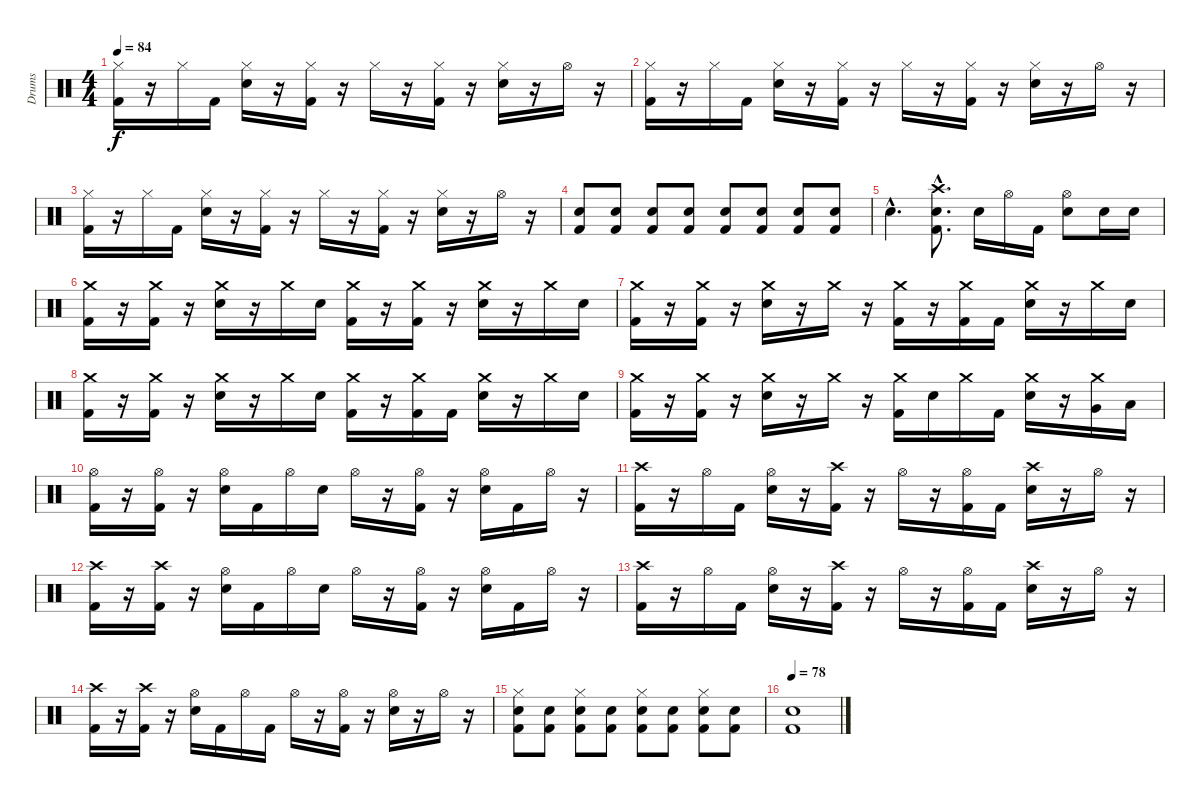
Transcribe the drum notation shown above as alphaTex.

\track ("Drums" "Drums") {instrument percussion}
\staff {score}
\articulation defaults
\ts (4 4)
\tempo 84
\clef neutral
\ks c
("Hi-Hat (closed)" "Kick (hit) 2").16{dy f} r.16 "Hi-Hat (closed)".16 "Kick (hit) 2".16 ("Hi-Hat (closed)" "Snare (hit) 2").16 r.16 ("Hi-Hat (closed)" "Kick (hit) 2").16 r.16 "Hi-Hat (closed)".16 r.16 ("Hi-Hat (closed)" "Kick (hit) 2").16 r.16 ("Hi-Hat (closed)" "Snare (hit) 2").16 r.16 "Hi-Hat (open)".16 r.16 |
("Hi-Hat (closed)" "Kick (hit) 2").16 r.16 "Hi-Hat (closed)".16 "Kick (hit) 2".16 ("Hi-Hat (closed)" "Snare (hit) 2").16 r.16 ("Hi-Hat (closed)" "Kick (hit) 2").16 r.16 "Hi-Hat (closed)".16 r.16 ("Hi-Hat (closed)" "Kick (hit) 2").16 r.16 ("Hi-Hat (closed)" "Snare (hit) 2").16 r.16 "Hi-Hat (open)".16 r.16 |
("Hi-Hat (closed)" "Kick (hit) 2").16 r.16 "Hi-Hat (closed)".16 "Kick (hit) 2".16 ("Hi-Hat (closed)" "Snare (hit) 2").16 r.16 ("Hi-Hat (closed)" "Kick (hit) 2").16 r.16 "Hi-Hat (closed)".16 r.16 ("Hi-Hat (closed)" "Kick (hit) 2").16 r.16 ("Hi-Hat (closed)" "Snare (hit) 2").16 r.16 "Hi-Hat (open)".16 r.16 |
("Snare (hit) 2" "Kick (hit) 2").8 ("Snare (hit) 2" "Kick (hit) 2").8 ("Snare (hit) 2" "Kick (hit) 2").8 ("Snare (hit) 2" "Kick (hit) 2").8 ("Snare (hit) 2" "Kick (hit) 2").8 ("Snare (hit) 2" "Kick (hit) 2").8 ("Snare (hit) 2" "Kick (hit) 2").8 ("Snare (hit) 2" "Kick (hit) 2").8 |
"Snare (hit) 2"{hac}.4{d} ("Crash high (hit)"{hac} "Snare (hit) 2"{hac} "Kick (hit) 2"{hac}).8{d} "Snare (hit) 2".16 "Hi-Hat (open)".16 "Kick (hit) 2".16 ("Hi-Hat (open)" "Snare (hit) 2").8 "Snare (hit) 2".16 "Snare (hit) 2".16 |
("Crash medium (hit)" "Kick (hit) 2").16 r.16 ("Crash medium (hit)" "Kick (hit) 2").16 r.16 ("Crash medium (hit)" "Snare (hit) 2").16 r.16 "Crash medium (hit)".16 "Snare (hit) 2".16 ("Crash medium (hit)" "Kick (hit) 2").16 r.16 ("Crash medium (hit)" "Kick (hit) 2").16 r.16 ("Crash medium (hit)" "Snare (hit) 2").16 r.16 "Crash medium (hit)".16 "Snare (hit) 2".16 |
("Crash medium (hit)" "Kick (hit) 2").16 r.16 ("Crash medium (hit)" "Kick (hit) 2").16 r.16 ("Crash medium (hit)" "Snare (hit) 2").16 r.16 "Crash medium (hit)".16 r.16 ("Crash medium (hit)" "Kick (hit) 2").16 r.16 ("Crash medium (hit)" "Kick (hit) 2").16 "Kick (hit) 2".16 ("Crash medium (hit)" "Snare (hit) 2").16 r.16 "Crash medium (hit)".16 "Snare (hit) 2".16 |
("Crash medium (hit)" "Kick (hit) 2").16 r.16 ("Crash medium (hit)" "Kick (hit) 2").16 r.16 ("Crash medium (hit)" "Snare (hit) 2").16 r.16 "Crash medium (hit)".16 "Snare (hit) 2".16 ("Crash medium (hit)" "Kick (hit) 2").16 r.16 ("Crash medium (hit)" "Kick (hit) 2").16 "Kick (hit) 2".16 ("Crash medium (hit)" "Snare (hit) 2").16 r.16 "Crash medium (hit)".16 "Snare (hit) 2".16 |
("Crash medium (hit)" "Kick (hit) 2").16 r.16 ("Crash medium (hit)" "Kick (hit) 2").16 r.16 ("Crash medium (hit)" "Snare (hit) 2").16 r.16 "Crash medium (hit)".16 r.16 ("Crash medium (hit)" "Kick (hit) 2").16 "Snare (hit) 2".16 "Crash medium (hit)".16 "Kick (hit) 2".16 ("Crash medium (hit)" "Snare (hit) 2").16 r.16 ("Crash medium (hit)" "Very Low Tom (hit)").16 "Low Floor Tom (hit)".16 |
("Hi-Hat (open)" "Kick (hit) 2").16 r.16 ("Hi-Hat (open)" "Kick (hit) 2").16 r.16 ("Hi-Hat (open)" "Snare (hit) 2").16 "Kick (hit) 2".16 "Hi-Hat (open)".16 "Snare (hit) 2".16 "Hi-Hat (open)".16 r.16 ("Hi-Hat (open)" "Kick (hit) 2").16 r.16 ("Hi-Hat (open)" "Snare (hit) 2").16 "Kick (hit) 2".16 "Hi-Hat (open)".16 r.16 |
("Crash high (hit)" "Kick (hit) 2").16 r.16 "Hi-Hat (open)".16 "Kick (hit) 2".16 ("Hi-Hat (open)" "Snare (hit) 2").16 r.16 ("Crash high (hit)" "Kick (hit) 2").16 r.16 "Hi-Hat (open)".16 r.16 ("Hi-Hat (open)" "Kick (hit) 2").16 "Kick (hit) 2".16 ("Crash high (hit)" "Snare (hit) 2").16 r.16 "Hi-Hat (open)".16 r.16 |
("Crash high (hit)" "Kick (hit) 2").16 r.16 ("Crash high (hit)" "Kick (hit) 2").16 r.16 ("Hi-Hat (open)" "Snare (hit) 2").16 "Kick (hit) 2".16 "Hi-Hat (open)".16 "Snare (hit) 2".16 "Hi-Hat (open)".16 r.16 ("Hi-Hat (open)" "Kick (hit) 2").16 r.16 ("Hi-Hat (open)" "Snare (hit) 2").16 "Kick (hit) 2".16 "Hi-Hat (open)".16 r.16 |
("Crash high (hit)" "Kick (hit) 2").16 r.16 "Hi-Hat (open)".16 "Kick (hit) 2".16 ("Hi-Hat (open)" "Snare (hit) 2").16 r.16 ("Crash high (hit)" "Kick (hit) 2").16 r.16 "Hi-Hat (open)".16 r.16 ("Hi-Hat (open)" "Kick (hit) 2").16 "Kick (hit) 2".16 ("Crash high (hit)" "Snare (hit) 2").16 r.16 "Hi-Hat (open)".16 r.16 |
("Crash high (hit)" "Kick (hit) 2").16 r.16 ("Crash high (hit)" "Kick (hit) 2").16 r.16 ("Hi-Hat (open)" "Snare (hit) 2").16 "Kick (hit) 2".16 "Hi-Hat (open)".16 "Kick (hit) 2".16 "Hi-Hat (open)".16 r.16 ("Hi-Hat (open)" "Kick (hit) 2").16 r.16 ("Hi-Hat (open)" "Snare (hit) 2").16 r.16 "Hi-Hat (open)".16 r.16 |
("Hi-Hat (closed)" "Snare (hit) 2" "Kick (hit) 2").8 ("Snare (hit) 2" "Kick (hit) 2").8 ("Hi-Hat (closed)" "Snare (hit) 2" "Kick (hit) 2").8 ("Snare (hit) 2" "Kick (hit) 2").8 ("Hi-Hat (closed)" "Snare (hit) 2" "Kick (hit) 2").8 ("Snare (hit) 2" "Kick (hit) 2").8 ("Hi-Hat (closed)" "Snare (hit) 2" "Kick (hit) 2").8 ("Snare (hit) 2" "Kick (hit) 2").8 |
\tempo 78
("Snare (hit) 2" "Kick (hit) 2").1
